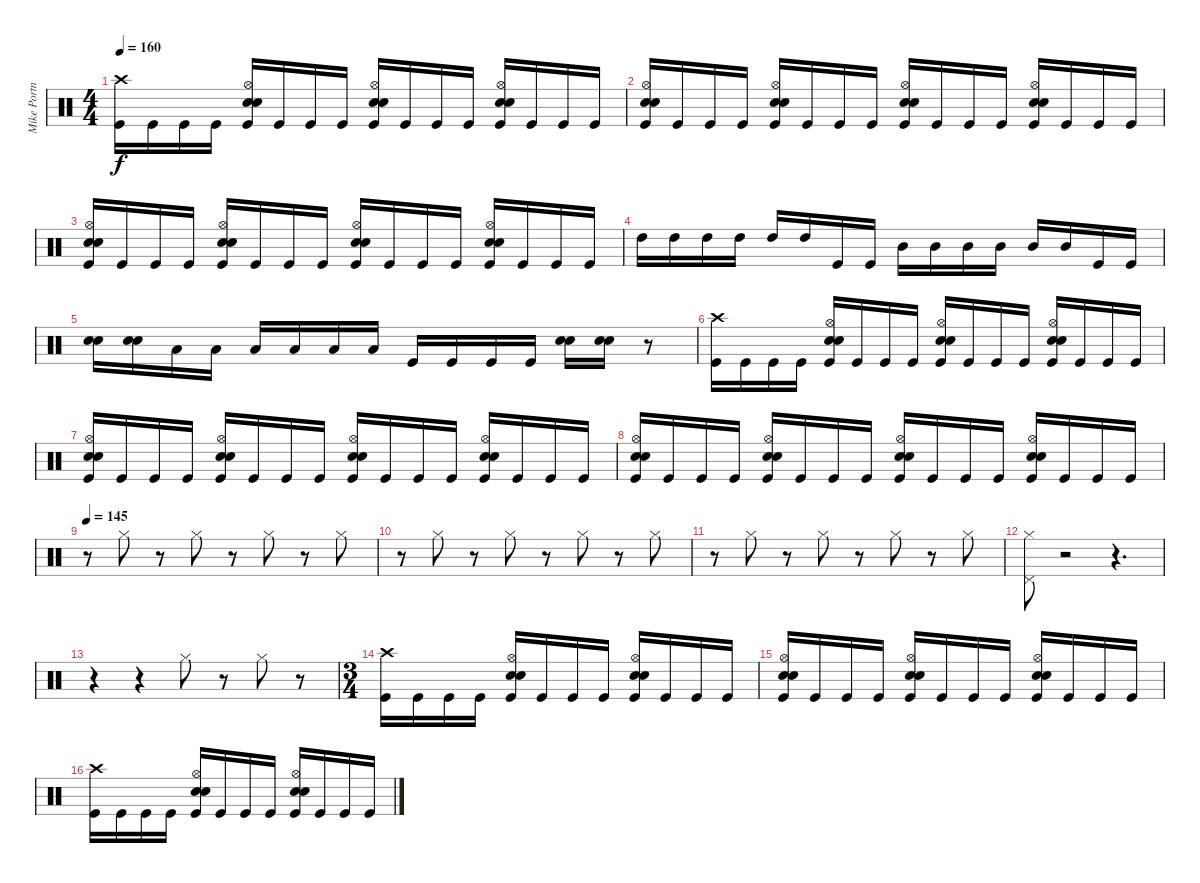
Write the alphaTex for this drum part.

\track ("Mike Portnoy Drums" "Mike Portn") {instrument percussion}
\staff {score}
\articulation defaults
\ts (4 4)
\tempo 160
\clef neutral
\ks c
("Crash high (hit)" "Kick (hit)").16{dy f} "Kick (hit)".16 "Kick (hit)".16 "Kick (hit)".16 ("Hi-Hat (open)" "Snare (hit) 2" "Electric Snare (hit)" "Kick (hit)").16 "Kick (hit)".16 "Kick (hit)".16 "Kick (hit)".16 ("Hi-Hat (open)" "Snare (hit) 2" "Electric Snare (hit)" "Kick (hit)").16 "Kick (hit)".16 "Kick (hit)".16 "Kick (hit)".16 ("Hi-Hat (open)" "Snare (hit) 2" "Electric Snare (hit)" "Kick (hit)").16 "Kick (hit)".16 "Kick (hit)".16 "Kick (hit)".16 |
("Hi-Hat (open)" "Snare (hit) 2" "Electric Snare (hit)" "Kick (hit)").16 "Kick (hit)".16 "Kick (hit)".16 "Kick (hit)".16 ("Hi-Hat (open)" "Snare (hit) 2" "Electric Snare (hit)" "Kick (hit)").16 "Kick (hit)".16 "Kick (hit)".16 "Kick (hit)".16 ("Hi-Hat (open)" "Snare (hit) 2" "Electric Snare (hit)" "Kick (hit)").16 "Kick (hit)".16 "Kick (hit)".16 "Kick (hit)".16 ("Hi-Hat (open)" "Snare (hit) 2" "Electric Snare (hit)" "Kick (hit)").16 "Kick (hit)".16 "Kick (hit)".16 "Kick (hit)".16 |
("Hi-Hat (open)" "Snare (hit) 2" "Electric Snare (hit)" "Kick (hit)").16 "Kick (hit)".16 "Kick (hit)".16 "Kick (hit)".16 ("Hi-Hat (open)" "Snare (hit) 2" "Electric Snare (hit)" "Kick (hit)").16 "Kick (hit)".16 "Kick (hit)".16 "Kick (hit)".16 ("Hi-Hat (open)" "Snare (hit) 2" "Electric Snare (hit)" "Kick (hit)").16 "Kick (hit)".16 "Kick (hit)".16 "Kick (hit)".16 ("Hi-Hat (open)" "Snare (hit) 2" "Electric Snare (hit)" "Kick (hit)").16 "Kick (hit)".16 "Kick (hit)".16 "Kick (hit)".16 |
"High Tom (hit)".16 "High Tom (hit)".16 "High Tom (hit)".16 "High Tom (hit)".16 "High Tom (hit)".16 "High Tom (hit)".16 "Kick (hit)".16 "Kick (hit)".16 "Mid Tom (hit)".16 "Mid Tom (hit)".16 "Mid Tom (hit)".16 "Mid Tom (hit)".16 "Mid Tom (hit)".16 "Mid Tom (hit)".16 "Kick (hit)".16 "Kick (hit)".16 |
("Snare (hit) 2" "Electric Snare (hit)").16 ("Snare (hit) 2" "Electric Snare (hit)").16 "Low Tom (hit)".16 "Low Tom (hit)".16 "Low Tom (hit)".16 "Low Tom (hit)".16 "Low Tom (hit)".16 "Low Tom (hit)".16 "Kick (hit)".16 "Kick (hit)".16 "Kick (hit)".16 "Kick (hit)".16 ("Snare (hit) 2" "Electric Snare (hit)").16 ("Snare (hit) 2" "Electric Snare (hit)").16 r.8 |
("Crash high (hit)" "Kick (hit)").16 "Kick (hit)".16 "Kick (hit)".16 "Kick (hit)".16 ("Hi-Hat (open)" "Snare (hit) 2" "Electric Snare (hit)" "Kick (hit)").16 "Kick (hit)".16 "Kick (hit)".16 "Kick (hit)".16 ("Hi-Hat (open)" "Snare (hit) 2" "Electric Snare (hit)" "Kick (hit)").16 "Kick (hit)".16 "Kick (hit)".16 "Kick (hit)".16 ("Hi-Hat (open)" "Snare (hit) 2" "Electric Snare (hit)" "Kick (hit)").16 "Kick (hit)".16 "Kick (hit)".16 "Kick (hit)".16 |
("Hi-Hat (open)" "Snare (hit) 2" "Electric Snare (hit)" "Kick (hit)").16 "Kick (hit)".16 "Kick (hit)".16 "Kick (hit)".16 ("Hi-Hat (open)" "Snare (hit) 2" "Electric Snare (hit)" "Kick (hit)").16 "Kick (hit)".16 "Kick (hit)".16 "Kick (hit)".16 ("Hi-Hat (open)" "Snare (hit) 2" "Electric Snare (hit)" "Kick (hit)").16 "Kick (hit)".16 "Kick (hit)".16 "Kick (hit)".16 ("Hi-Hat (open)" "Snare (hit) 2" "Electric Snare (hit)" "Kick (hit)").16 "Kick (hit)".16 "Kick (hit)".16 "Kick (hit)".16 |
("Hi-Hat (open)" "Snare (hit) 2" "Electric Snare (hit)" "Kick (hit)").16 "Kick (hit)".16 "Kick (hit)".16 "Kick (hit)".16 ("Hi-Hat (open)" "Snare (hit) 2" "Electric Snare (hit)" "Kick (hit)").16 "Kick (hit)".16 "Kick (hit)".16 "Kick (hit)".16 ("Hi-Hat (open)" "Snare (hit) 2" "Electric Snare (hit)" "Kick (hit)").16 "Kick (hit)".16 "Kick (hit)".16 "Kick (hit)".16 ("Hi-Hat (open)" "Snare (hit) 2" "Electric Snare (hit)" "Kick (hit)").16 "Kick (hit)".16 "Kick (hit)".16 "Kick (hit)".16 |
\tempo 145
r.8 "Hi-Hat (closed)".8 r.8 "Hi-Hat (closed)".8 r.8 "Hi-Hat (closed)".8 r.8 "Hi-Hat (closed)".8 |
r.8 "Hi-Hat (closed)".8 r.8 "Hi-Hat (closed)".8 r.8 "Hi-Hat (closed)".8 r.8 "Hi-Hat (closed)".8 |
r.8 "Hi-Hat (closed)".8 r.8 "Hi-Hat (closed)".8 r.8 "Hi-Hat (closed)".8 r.8 "Hi-Hat (closed)".8 |
("Pedal Hi-Hat (hit)" "Hi-Hat (closed)").8 r.2 r.4{d} |
r.4 r.4 "Hi-Hat (closed)".8 r.8 "Hi-Hat (closed)".8 r.8 |
\ts (3 4)
("Crash high (hit)" "Kick (hit)").16 "Kick (hit)".16 "Kick (hit)".16 "Kick (hit)".16 ("Hi-Hat (open)" "Snare (hit) 2" "Electric Snare (hit)" "Kick (hit)").16 "Kick (hit)".16 "Kick (hit)".16 "Kick (hit)".16 ("Hi-Hat (open)" "Snare (hit) 2" "Electric Snare (hit)" "Kick (hit)").16 "Kick (hit)".16 "Kick (hit)".16 "Kick (hit)".16 |
("Hi-Hat (open)" "Snare (hit) 2" "Electric Snare (hit)" "Kick (hit)").16 "Kick (hit)".16 "Kick (hit)".16 "Kick (hit)".16 ("Hi-Hat (open)" "Snare (hit) 2" "Electric Snare (hit)" "Kick (hit)").16 "Kick (hit)".16 "Kick (hit)".16 "Kick (hit)".16 ("Hi-Hat (open)" "Snare (hit) 2" "Electric Snare (hit)" "Kick (hit)").16 "Kick (hit)".16 "Kick (hit)".16 "Kick (hit)".16 |
("Crash high (hit)" "Kick (hit)").16 "Kick (hit)".16 "Kick (hit)".16 "Kick (hit)".16 ("Hi-Hat (open)" "Snare (hit) 2" "Electric Snare (hit)" "Kick (hit)").16 "Kick (hit)".16 "Kick (hit)".16 "Kick (hit)".16 ("Hi-Hat (open)" "Snare (hit) 2" "Electric Snare (hit)" "Kick (hit)").16 "Kick (hit)".16 "Kick (hit)".16 "Kick (hit)".16
